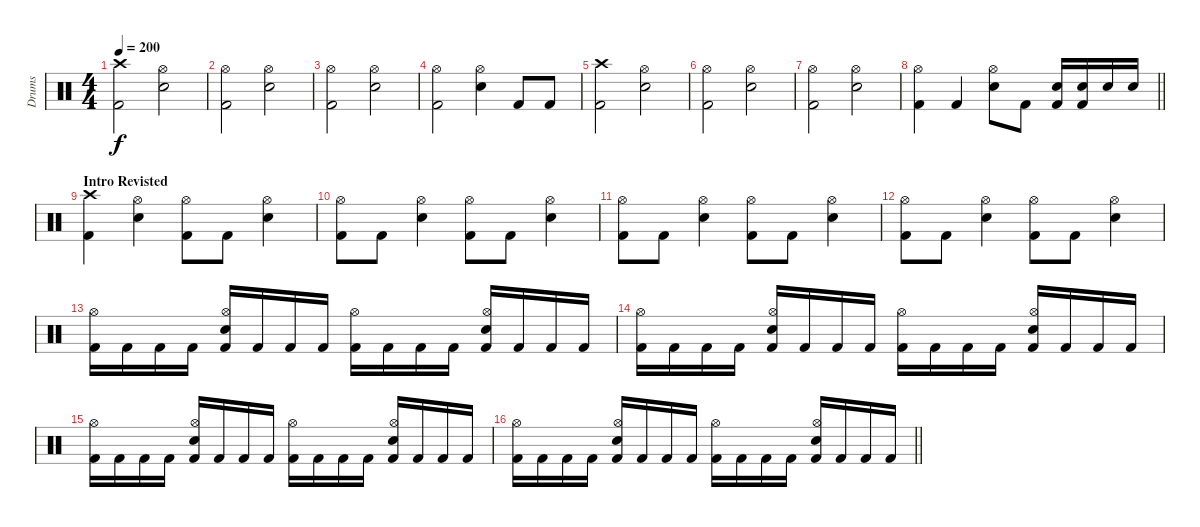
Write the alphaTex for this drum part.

\track ("Drums" "Drums") {instrument percussion}
\staff {score}
\articulation defaults
\ts (4 4)
\tempo 200
\clef neutral
\ks c
("Crash high (hit)" "Kick (hit) 2").2{dy f} ("Hi-Hat (open)" "Electric Snare (hit)").2 |
("Hi-Hat (open)" "Kick (hit) 2").2 ("Hi-Hat (open)" "Electric Snare (hit)").2 |
("Hi-Hat (open)" "Kick (hit) 2").2 ("Hi-Hat (open)" "Electric Snare (hit)").2 |
("Hi-Hat (open)" "Kick (hit) 2").2 ("Hi-Hat (open)" "Electric Snare (hit)").4 "Kick (hit) 2".8 "Kick (hit) 2".8 |
("Crash high (hit)" "Kick (hit) 2").2 ("Hi-Hat (open)" "Electric Snare (hit)").2 |
("Hi-Hat (open)" "Kick (hit) 2").2 ("Hi-Hat (open)" "Electric Snare (hit)").2 |
("Hi-Hat (open)" "Kick (hit) 2").2 ("Hi-Hat (open)" "Electric Snare (hit)").2 |
\barLineRight lightlight
("Hi-Hat (open)" "Kick (hit) 2").4 "Kick (hit) 2".4 ("Hi-Hat (open)" "Electric Snare (hit)").8 "Kick (hit) 2".8 ("Electric Snare (hit)" "Kick (hit) 2").16 ("Electric Snare (hit)" "Kick (hit) 2").16 "Electric Snare (hit)".16 "Electric Snare (hit)".16 |
\section ("" "Intro Revisted")
("Crash high (hit)" "Kick (hit) 2").4 ("Hi-Hat (open)" "Electric Snare (hit)").4 ("Hi-Hat (open)" "Kick (hit) 2").8 "Kick (hit) 2".8 ("Hi-Hat (open)" "Electric Snare (hit)").4 |
("Hi-Hat (open)" "Kick (hit) 2").8 "Kick (hit) 2".8 ("Hi-Hat (open)" "Electric Snare (hit)").4 ("Hi-Hat (open)" "Kick (hit) 2").8 "Kick (hit) 2".8 ("Hi-Hat (open)" "Electric Snare (hit)").4 |
("Hi-Hat (open)" "Kick (hit) 2").8 "Kick (hit) 2".8 ("Hi-Hat (open)" "Electric Snare (hit)").4 ("Hi-Hat (open)" "Kick (hit) 2").8 "Kick (hit) 2".8 ("Hi-Hat (open)" "Electric Snare (hit)").4 |
("Hi-Hat (open)" "Kick (hit) 2").8 "Kick (hit) 2".8 ("Hi-Hat (open)" "Electric Snare (hit)").4 ("Hi-Hat (open)" "Kick (hit) 2").8 "Kick (hit) 2".8 ("Hi-Hat (open)" "Electric Snare (hit)").4 |
("Hi-Hat (open)" "Kick (hit) 2").16 "Kick (hit) 2".16 "Kick (hit) 2".16 "Kick (hit) 2".16 ("Hi-Hat (open)" "Electric Snare (hit)" "Kick (hit) 2").16 "Kick (hit) 2".16 "Kick (hit) 2".16 "Kick (hit) 2".16 ("Hi-Hat (open)" "Kick (hit) 2").16 "Kick (hit) 2".16 "Kick (hit) 2".16 "Kick (hit) 2".16 ("Hi-Hat (open)" "Electric Snare (hit)" "Kick (hit) 2").16 "Kick (hit) 2".16 "Kick (hit) 2".16 "Kick (hit) 2".16 |
("Hi-Hat (open)" "Kick (hit) 2").16 "Kick (hit) 2".16 "Kick (hit) 2".16 "Kick (hit) 2".16 ("Hi-Hat (open)" "Electric Snare (hit)" "Kick (hit) 2").16 "Kick (hit) 2".16 "Kick (hit) 2".16 "Kick (hit) 2".16 ("Hi-Hat (open)" "Kick (hit) 2").16 "Kick (hit) 2".16 "Kick (hit) 2".16 "Kick (hit) 2".16 ("Hi-Hat (open)" "Electric Snare (hit)" "Kick (hit) 2").16 "Kick (hit) 2".16 "Kick (hit) 2".16 "Kick (hit) 2".16 |
("Hi-Hat (open)" "Kick (hit) 2").16 "Kick (hit) 2".16 "Kick (hit) 2".16 "Kick (hit) 2".16 ("Hi-Hat (open)" "Electric Snare (hit)" "Kick (hit) 2").16 "Kick (hit) 2".16 "Kick (hit) 2".16 "Kick (hit) 2".16 ("Hi-Hat (open)" "Kick (hit) 2").16 "Kick (hit) 2".16 "Kick (hit) 2".16 "Kick (hit) 2".16 ("Hi-Hat (open)" "Electric Snare (hit)" "Kick (hit) 2").16 "Kick (hit) 2".16 "Kick (hit) 2".16 "Kick (hit) 2".16 |
\barLineRight lightlight
("Hi-Hat (open)" "Kick (hit) 2").16 "Kick (hit) 2".16 "Kick (hit) 2".16 "Kick (hit) 2".16 ("Hi-Hat (open)" "Electric Snare (hit)" "Kick (hit) 2").16 "Kick (hit) 2".16 "Kick (hit) 2".16 "Kick (hit) 2".16 ("Hi-Hat (open)" "Kick (hit) 2").16 "Kick (hit) 2".16 "Kick (hit) 2".16 "Kick (hit) 2".16 ("Hi-Hat (open)" "Electric Snare (hit)" "Kick (hit) 2").16 "Kick (hit) 2".16 "Kick (hit) 2".16 "Kick (hit) 2".16
